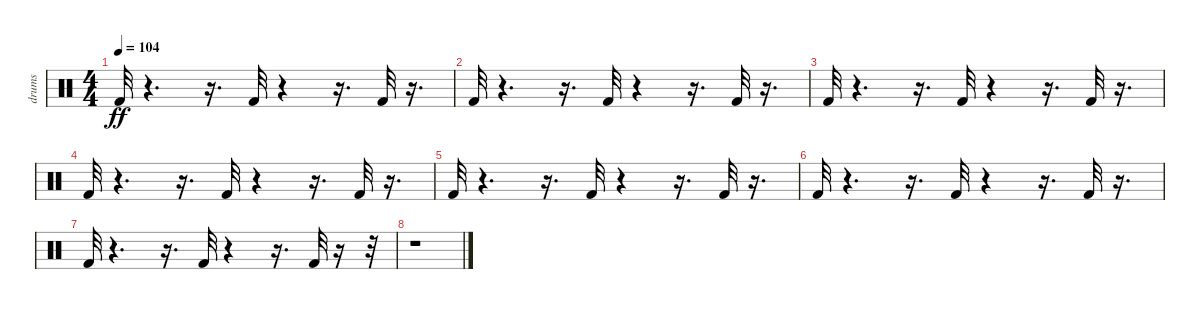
\track ("drums" "drums") {instrument percussion}
\staff {score}
\articulation defaults
\ts (4 4)
\tempo 104
\clef neutral
\ks c "Kick (hit) 2".32{dy ff}
r.4{d} r.16{d} "Kick (hit) 2".32 r.4 r.16{d} "Kick (hit) 2".32 r.16{d} |
"Kick (hit) 2".32 r.4{d} r.16{d} "Kick (hit) 2".32 r.4 r.16{d} "Kick (hit) 2".32 r.16{d} |
"Kick (hit) 2".32 r.4{d} r.16{d} "Kick (hit) 2".32 r.4 r.16{d} "Kick (hit) 2".32 r.16{d} |
"Kick (hit) 2".32 r.4{d} r.16{d} "Kick (hit) 2".32 r.4 r.16{d} "Kick (hit) 2".32 r.16{d} |
"Kick (hit) 2".32 r.4{d} r.16{d} "Kick (hit) 2".32 r.4 r.16{d} "Kick (hit) 2".32 r.16{d} |
"Kick (hit) 2".32 r.4{d} r.16{d} "Kick (hit) 2".32 r.4 r.16{d} "Kick (hit) 2".32 r.16{d} |
"Kick (hit) 2".32 r.4{d} r.16{d} "Kick (hit) 2".32 r.4 r.16{d} "Kick (hit) 2".32 r.16 r.32 |
r.1
